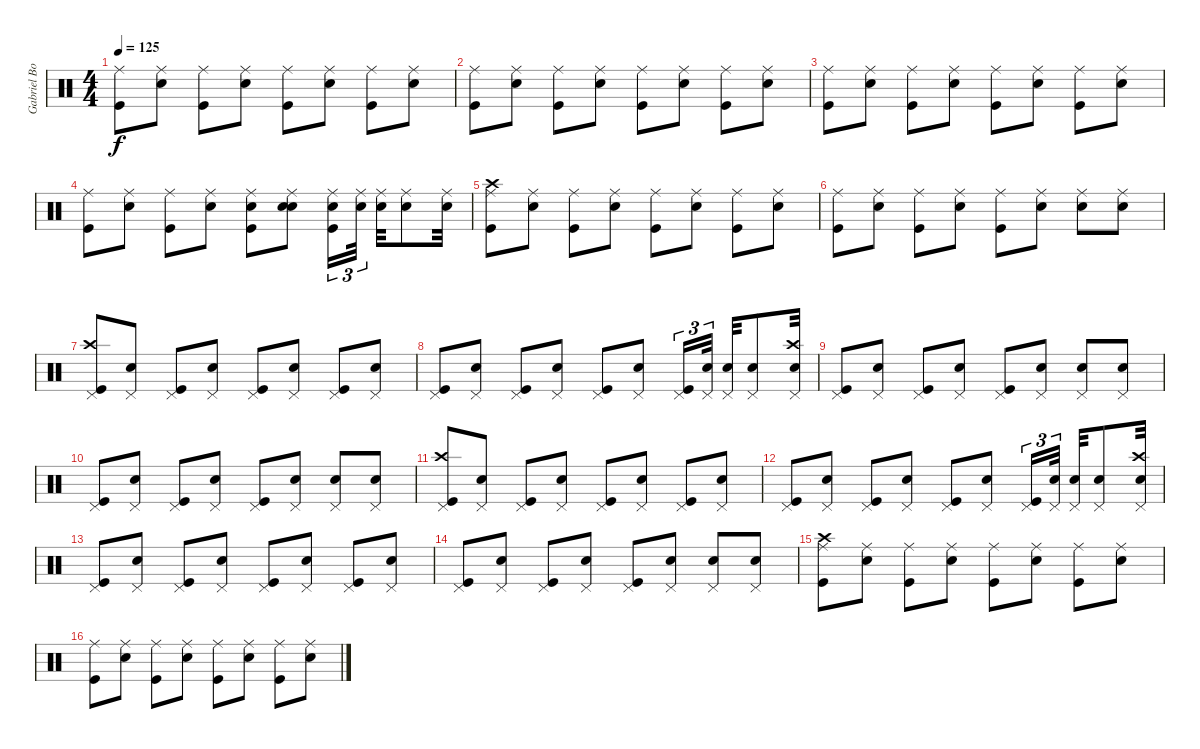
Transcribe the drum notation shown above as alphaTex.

\track ("Gabriel Boizinho" "Gabriel Bo") {instrument percussion}
\staff {score}
\articulation defaults
\ts (4 4)
\tempo 125
\clef neutral
\ks c
("Ride (middle)" "Kick (hit)").8{dy f} ("Ride (middle)" "Electric Snare (hit)").8 ("Ride (middle)" "Kick (hit)").8 ("Ride (middle)" "Electric Snare (hit)").8 ("Ride (middle)" "Kick (hit)").8 ("Ride (middle)" "Electric Snare (hit)").8 ("Ride (middle)" "Kick (hit)").8 ("Ride (middle)" "Electric Snare (hit)").8 |
("Ride (middle)" "Kick (hit)").8 ("Ride (middle)" "Electric Snare (hit)").8 ("Ride (middle)" "Kick (hit)").8 ("Ride (middle)" "Electric Snare (hit)").8 ("Ride (middle)" "Kick (hit)").8 ("Ride (middle)" "Electric Snare (hit)").8 ("Ride (middle)" "Kick (hit)").8 ("Ride (middle)" "Electric Snare (hit)").8 |
("Ride (middle)" "Kick (hit)").8 ("Ride (middle)" "Electric Snare (hit)").8 ("Ride (middle)" "Kick (hit)").8 ("Ride (middle)" "Electric Snare (hit)").8 ("Ride (middle)" "Kick (hit)").8 ("Ride (middle)" "Electric Snare (hit)").8 ("Ride (middle)" "Kick (hit)").8 ("Ride (middle)" "Electric Snare (hit)").8 |
("Ride (middle)" "Kick (hit)").8 ("Ride (middle)" "Electric Snare (hit)").8 ("Ride (middle)" "Kick (hit)").8 ("Ride (middle)" "Electric Snare (hit)").8 ("Electric Snare (hit)" "Ride (middle)" "Kick (hit)").8 ("Electric Snare (hit)" "Ride (middle)" "Electric Snare (hit)").8 ("Electric Snare (hit)" "Ride (middle)" "Kick (hit)").16{tu (3 2)} ("Ride (middle)" "Electric Snare (hit)").32{tu (3 2)} ("Ride (middle)" "Electric Snare (hit)").32 ("Ride (middle)" "Electric Snare (hit)").8 ("Ride (middle)" "Electric Snare (hit)").32 |
("Crash high (hit)" "Ride (middle)" "Kick (hit)").8 ("Ride (middle)" "Electric Snare (hit)").8 ("Ride (middle)" "Kick (hit)").8 ("Ride (middle)" "Electric Snare (hit)").8 ("Ride (middle)" "Kick (hit)").8 ("Ride (middle)" "Electric Snare (hit)").8 ("Ride (middle)" "Kick (hit)").8 ("Ride (middle)" "Electric Snare (hit)").8 |
("Ride (middle)" "Kick (hit)").8 ("Ride (middle)" "Electric Snare (hit)").8 ("Ride (middle)" "Kick (hit)").8 ("Ride (middle)" "Electric Snare (hit)").8 ("Ride (middle)" "Kick (hit)").8 ("Ride (middle)" "Electric Snare (hit)").8 ("Ride (middle)" "Electric Snare (hit)").8 ("Ride (middle)" "Electric Snare (hit)").8 |
("Crash high (hit)" "Pedal Hi-Hat (hit)" "Kick (hit)").8 ("Pedal Hi-Hat (hit)" "Electric Snare (hit)").8 ("Pedal Hi-Hat (hit)" "Kick (hit)").8 ("Pedal Hi-Hat (hit)" "Electric Snare (hit)").8 ("Pedal Hi-Hat (hit)" "Kick (hit)").8 ("Pedal Hi-Hat (hit)" "Electric Snare (hit)").8 ("Pedal Hi-Hat (hit)" "Kick (hit)").8 ("Pedal Hi-Hat (hit)" "Electric Snare (hit)").8 |
("Pedal Hi-Hat (hit)" "Kick (hit)").8 ("Pedal Hi-Hat (hit)" "Electric Snare (hit)").8 ("Pedal Hi-Hat (hit)" "Kick (hit)").8 ("Pedal Hi-Hat (hit)" "Electric Snare (hit)").8 ("Pedal Hi-Hat (hit)" "Kick (hit)").8 ("Pedal Hi-Hat (hit)" "Electric Snare (hit)").8 ("Pedal Hi-Hat (hit)" "Kick (hit)").16{tu (3 2)} ("Pedal Hi-Hat (hit)" "Electric Snare (hit)").32{tu (3 2)} ("Pedal Hi-Hat (hit)" "Electric Snare (hit)").32 ("Pedal Hi-Hat (hit)" "Electric Snare (hit)").8 ("Crash high (hit)" "Pedal Hi-Hat (hit)" "Electric Snare (hit)").32 |
("Pedal Hi-Hat (hit)" "Kick (hit)").8 ("Pedal Hi-Hat (hit)" "Electric Snare (hit)").8 ("Pedal Hi-Hat (hit)" "Kick (hit)").8 ("Pedal Hi-Hat (hit)" "Electric Snare (hit)").8 ("Pedal Hi-Hat (hit)" "Kick (hit)").8 ("Pedal Hi-Hat (hit)" "Electric Snare (hit)").8 ("Pedal Hi-Hat (hit)" "Electric Snare (hit)").8 ("Pedal Hi-Hat (hit)" "Electric Snare (hit)").8 |
("Pedal Hi-Hat (hit)" "Kick (hit)").8 ("Pedal Hi-Hat (hit)" "Electric Snare (hit)").8 ("Pedal Hi-Hat (hit)" "Kick (hit)").8 ("Pedal Hi-Hat (hit)" "Electric Snare (hit)").8 ("Pedal Hi-Hat (hit)" "Kick (hit)").8 ("Pedal Hi-Hat (hit)" "Electric Snare (hit)").8 ("Pedal Hi-Hat (hit)" "Electric Snare (hit)").8 ("Pedal Hi-Hat (hit)" "Electric Snare (hit)").8 |
("Crash high (hit)" "Pedal Hi-Hat (hit)" "Kick (hit)").8 ("Pedal Hi-Hat (hit)" "Electric Snare (hit)").8 ("Pedal Hi-Hat (hit)" "Kick (hit)").8 ("Pedal Hi-Hat (hit)" "Electric Snare (hit)").8 ("Pedal Hi-Hat (hit)" "Kick (hit)").8 ("Pedal Hi-Hat (hit)" "Electric Snare (hit)").8 ("Pedal Hi-Hat (hit)" "Kick (hit)").8 ("Pedal Hi-Hat (hit)" "Electric Snare (hit)").8 |
("Pedal Hi-Hat (hit)" "Kick (hit)").8 ("Pedal Hi-Hat (hit)" "Electric Snare (hit)").8 ("Pedal Hi-Hat (hit)" "Kick (hit)").8 ("Pedal Hi-Hat (hit)" "Electric Snare (hit)").8 ("Pedal Hi-Hat (hit)" "Kick (hit)").8 ("Pedal Hi-Hat (hit)" "Electric Snare (hit)").8 ("Pedal Hi-Hat (hit)" "Kick (hit)").16{tu (3 2)} ("Pedal Hi-Hat (hit)" "Electric Snare (hit)").32{tu (3 2)} ("Pedal Hi-Hat (hit)" "Electric Snare (hit)").32 ("Pedal Hi-Hat (hit)" "Electric Snare (hit)").8 ("Crash high (hit)" "Pedal Hi-Hat (hit)" "Electric Snare (hit)").32 |
("Pedal Hi-Hat (hit)" "Kick (hit)").8 ("Pedal Hi-Hat (hit)" "Electric Snare (hit)").8 ("Pedal Hi-Hat (hit)" "Kick (hit)").8 ("Pedal Hi-Hat (hit)" "Electric Snare (hit)").8 ("Pedal Hi-Hat (hit)" "Kick (hit)").8 ("Pedal Hi-Hat (hit)" "Electric Snare (hit)").8 ("Pedal Hi-Hat (hit)" "Kick (hit)").8 ("Pedal Hi-Hat (hit)" "Electric Snare (hit)").8 |
("Pedal Hi-Hat (hit)" "Kick (hit)").8 ("Pedal Hi-Hat (hit)" "Electric Snare (hit)").8 ("Pedal Hi-Hat (hit)" "Kick (hit)").8 ("Pedal Hi-Hat (hit)" "Electric Snare (hit)").8 ("Pedal Hi-Hat (hit)" "Kick (hit)").8 ("Pedal Hi-Hat (hit)" "Electric Snare (hit)").8 ("Pedal Hi-Hat (hit)" "Electric Snare (hit)").8 ("Pedal Hi-Hat (hit)" "Electric Snare (hit)").8 |
("Crash high (hit)" "Ride (middle)" "Kick (hit)").8 ("Ride (middle)" "Electric Snare (hit)").8 ("Ride (middle)" "Kick (hit)").8 ("Ride (middle)" "Electric Snare (hit)").8 ("Ride (middle)" "Kick (hit)").8 ("Ride (middle)" "Electric Snare (hit)").8 ("Ride (middle)" "Kick (hit)").8 ("Ride (middle)" "Electric Snare (hit)").8 |
("Ride (middle)" "Kick (hit)").8 ("Ride (middle)" "Electric Snare (hit)").8 ("Ride (middle)" "Kick (hit)").8 ("Ride (middle)" "Electric Snare (hit)").8 ("Ride (middle)" "Kick (hit)").8 ("Ride (middle)" "Electric Snare (hit)").8 ("Ride (middle)" "Kick (hit)").8 ("Ride (middle)" "Electric Snare (hit)").8
